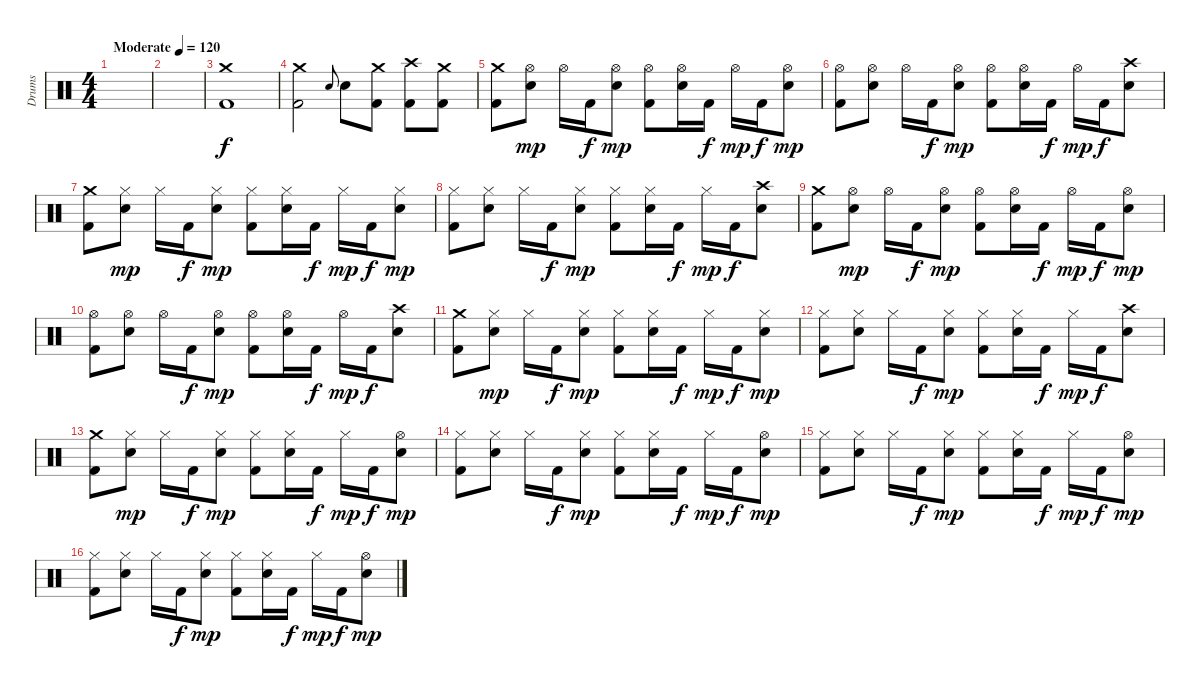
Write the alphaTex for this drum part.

\track ("Drums" "Drums") {instrument percussion}
\staff {score}
\articulation defaults
\ts (4 4)
\tempo (120 "Moderate")
\clef neutral
\ks c
|
|
("Crash medium (hit)" "Kick (hit) 2").1 |
("Crash medium (hit)" "Kick (hit) 2").2 "Snare (hit) 2".8{gr onbeat} "Snare (hit) 2".8 ("Crash medium (hit)" "Kick (hit) 2").8 ("Crash high (hit)" "Kick (hit) 2").8 ("Crash medium (hit)" "Kick (hit) 2").8 |
("Crash medium (hit)" "Kick (hit) 2").8 ("Hi-Hat (open)" "Snare (hit) 2").8{dy mp} "Hi-Hat (open)".16 "Kick (hit) 2".16{dy f} ("Hi-Hat (open)" "Snare (hit) 2").8{dy mp} ("Hi-Hat (open)" "Kick (hit) 2").8 ("Hi-Hat (open)" "Snare (hit) 2").16 "Kick (hit) 2".16{dy f} "Hi-Hat (open)".16{dy mp} "Kick (hit) 2".16{dy f} ("Hi-Hat (open)" "Snare (hit) 2").8{dy mp} |
("Hi-Hat (open)" "Kick (hit) 2").8 ("Hi-Hat (open)" "Snare (hit) 2").8 "Hi-Hat (open)".16 "Kick (hit) 2".16{dy f} ("Hi-Hat (open)" "Snare (hit) 2").8{dy mp} ("Hi-Hat (open)" "Kick (hit) 2").8 ("Hi-Hat (open)" "Snare (hit) 2").16 "Kick (hit) 2".16{dy f} "Hi-Hat (open)".16{dy mp} "Kick (hit) 2".16{dy f} ("Crash high (hit)" "Snare (hit) 2").8 |
("Crash medium (hit)" "Kick (hit) 2").8 ("Hi-Hat (closed)" "Snare (hit) 2").8{dy mp} "Hi-Hat (closed)".16 "Kick (hit) 2".16{dy f} ("Hi-Hat (closed)" "Snare (hit) 2").8{dy mp} ("Hi-Hat (closed)" "Kick (hit) 2").8 ("Hi-Hat (closed)" "Snare (hit) 2").16 "Kick (hit) 2".16{dy f} "Hi-Hat (closed)".16{dy mp} "Kick (hit) 2".16{dy f} ("Hi-Hat (closed)" "Snare (hit) 2").8{dy mp} |
("Hi-Hat (closed)" "Kick (hit) 2").8 ("Hi-Hat (closed)" "Snare (hit) 2").8 "Hi-Hat (closed)".16 "Kick (hit) 2".16{dy f} ("Hi-Hat (closed)" "Snare (hit) 2").8{dy mp} ("Hi-Hat (closed)" "Kick (hit) 2").8 ("Hi-Hat (closed)" "Snare (hit) 2").16 "Kick (hit) 2".16{dy f} "Hi-Hat (closed)".16{dy mp} "Kick (hit) 2".16{dy f} ("Crash high (hit)" "Snare (hit) 2").8 |
("Crash medium (hit)" "Kick (hit) 2").8 ("Hi-Hat (open)" "Snare (hit) 2").8{dy mp} "Hi-Hat (open)".16 "Kick (hit) 2".16{dy f} ("Hi-Hat (open)" "Snare (hit) 2").8{dy mp} ("Hi-Hat (open)" "Kick (hit) 2").8 ("Hi-Hat (open)" "Snare (hit) 2").16 "Kick (hit) 2".16{dy f} "Hi-Hat (open)".16{dy mp} "Kick (hit) 2".16{dy f} ("Hi-Hat (open)" "Snare (hit) 2").8{dy mp} |
("Hi-Hat (open)" "Kick (hit) 2").8 ("Hi-Hat (open)" "Snare (hit) 2").8 "Hi-Hat (open)".16 "Kick (hit) 2".16{dy f} ("Hi-Hat (open)" "Snare (hit) 2").8{dy mp} ("Hi-Hat (open)" "Kick (hit) 2").8 ("Hi-Hat (open)" "Snare (hit) 2").16 "Kick (hit) 2".16{dy f} "Hi-Hat (open)".16{dy mp} "Kick (hit) 2".16{dy f} ("Crash high (hit)" "Snare (hit) 2").8 |
("Crash medium (hit)" "Kick (hit) 2").8 ("Hi-Hat (closed)" "Snare (hit) 2").8{dy mp} "Hi-Hat (closed)".16 "Kick (hit) 2".16{dy f} ("Hi-Hat (closed)" "Snare (hit) 2").8{dy mp} ("Hi-Hat (closed)" "Kick (hit) 2").8 ("Hi-Hat (closed)" "Snare (hit) 2").16 "Kick (hit) 2".16{dy f} "Hi-Hat (closed)".16{dy mp} "Kick (hit) 2".16{dy f} ("Hi-Hat (closed)" "Snare (hit) 2").8{dy mp} |
("Hi-Hat (closed)" "Kick (hit) 2").8 ("Hi-Hat (closed)" "Snare (hit) 2").8 "Hi-Hat (closed)".16 "Kick (hit) 2".16{dy f} ("Hi-Hat (closed)" "Snare (hit) 2").8{dy mp} ("Hi-Hat (closed)" "Kick (hit) 2").8 ("Hi-Hat (closed)" "Snare (hit) 2").16 "Kick (hit) 2".16{dy f} "Hi-Hat (closed)".16{dy mp} "Kick (hit) 2".16{dy f} ("Crash high (hit)" "Snare (hit) 2").8 |
("Crash medium (hit)" "Kick (hit) 2").8 ("Hi-Hat (closed)" "Snare (hit) 2").8{dy mp} "Hi-Hat (closed)".16 "Kick (hit) 2".16{dy f} ("Hi-Hat (closed)" "Snare (hit) 2").8{dy mp} ("Hi-Hat (closed)" "Kick (hit) 2").8 ("Hi-Hat (closed)" "Snare (hit) 2").16 "Kick (hit) 2".16{dy f} "Hi-Hat (closed)".16{dy mp} "Kick (hit) 2".16{dy f} ("Hi-Hat (open)" "Snare (hit) 2").8{dy mp} |
("Hi-Hat (closed)" "Kick (hit) 2").8 ("Hi-Hat (closed)" "Snare (hit) 2").8 "Hi-Hat (closed)".16 "Kick (hit) 2".16{dy f} ("Hi-Hat (closed)" "Snare (hit) 2").8{dy mp} ("Hi-Hat (closed)" "Kick (hit) 2").8 ("Hi-Hat (closed)" "Snare (hit) 2").16 "Kick (hit) 2".16{dy f} "Hi-Hat (closed)".16{dy mp} "Kick (hit) 2".16{dy f} ("Hi-Hat (open)" "Snare (hit) 2").8{dy mp} |
("Hi-Hat (closed)" "Kick (hit) 2").8 ("Hi-Hat (closed)" "Snare (hit) 2").8 "Hi-Hat (closed)".16 "Kick (hit) 2".16{dy f} ("Hi-Hat (closed)" "Snare (hit) 2").8{dy mp} ("Hi-Hat (closed)" "Kick (hit) 2").8 ("Hi-Hat (closed)" "Snare (hit) 2").16 "Kick (hit) 2".16{dy f} "Hi-Hat (closed)".16{dy mp} "Kick (hit) 2".16{dy f} ("Hi-Hat (open)" "Snare (hit) 2").8{dy mp} |
("Hi-Hat (closed)" "Kick (hit) 2").8 ("Hi-Hat (closed)" "Snare (hit) 2").8 "Hi-Hat (closed)".16 "Kick (hit) 2".16{dy f} ("Hi-Hat (closed)" "Snare (hit) 2").8{dy mp} ("Hi-Hat (closed)" "Kick (hit) 2").8 ("Hi-Hat (closed)" "Snare (hit) 2").16 "Kick (hit) 2".16{dy f} "Hi-Hat (closed)".16{dy mp} "Kick (hit) 2".16{dy f} ("Hi-Hat (open)" "Snare (hit) 2").8{dy mp}
